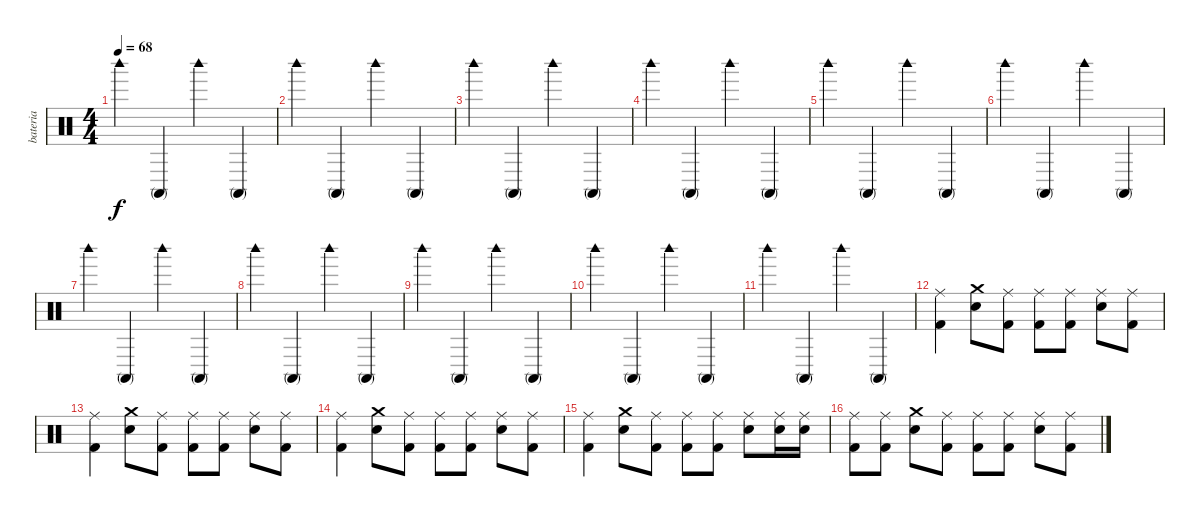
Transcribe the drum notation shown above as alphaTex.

\track ("bateria" "bateria") {instrument percussion}
\staff {score}
\articulation defaults
\ts (4 4)
\tempo 68
\clef neutral
\ks c "Woodblock high (hit)".4{dy f} "Conga high (mute)".4 "Woodblock high (hit)".4 "Conga high (mute)".4
|
"Woodblock high (hit)".4 "Conga high (mute)".4 "Woodblock high (hit)".4 "Conga high (mute)".4 |
"Woodblock high (hit)".4 "Conga high (mute)".4 "Woodblock high (hit)".4 "Conga high (mute)".4 |
"Woodblock high (hit)".4 "Conga high (mute)".4 "Woodblock high (hit)".4 "Conga high (mute)".4 |
"Woodblock high (hit)".4 "Conga high (mute)".4 "Woodblock high (hit)".4 "Conga high (mute)".4 |
"Woodblock high (hit)".4 "Conga high (mute)".4 "Woodblock high (hit)".4 "Conga high (mute)".4 |
"Woodblock high (hit)".4 "Conga high (mute)".4 "Woodblock high (hit)".4 "Conga high (mute)".4 |
"Woodblock high (hit)".4 "Conga high (mute)".4 "Woodblock high (hit)".4 "Conga high (mute)".4 |
"Woodblock high (hit)".4 "Conga high (mute)".4 "Woodblock high (hit)".4 "Conga high (mute)".4 |
"Woodblock high (hit)".4 "Conga high (mute)".4 "Woodblock high (hit)".4 "Conga high (mute)".4 |
"Woodblock high (hit)".4 "Conga high (mute)".4 "Woodblock high (hit)".4 "Conga high (mute)".4 |
("Ride (middle)" "Kick (hit) 2").4 ("Crash medium (hit)" "Snare (hit) 2").8 ("Ride (middle)" "Kick (hit) 2").8 ("Ride (middle)" "Kick (hit) 2").8 ("Ride (middle)" "Kick (hit) 2").8 ("Ride (middle)" "Snare (hit) 2").8 ("Ride (middle)" "Kick (hit) 2").8 |
("Ride (middle)" "Kick (hit) 2").4 ("Crash medium (hit)" "Snare (hit) 2").8 ("Ride (middle)" "Kick (hit) 2").8 ("Ride (middle)" "Kick (hit) 2").8 ("Ride (middle)" "Kick (hit) 2").8 ("Ride (middle)" "Snare (hit) 2").8 ("Ride (middle)" "Kick (hit) 2").8 |
("Ride (middle)" "Kick (hit) 2").4 ("Crash medium (hit)" "Snare (hit) 2").8 ("Ride (middle)" "Kick (hit) 2").8 ("Ride (middle)" "Kick (hit) 2").8 ("Ride (middle)" "Kick (hit) 2").8 ("Ride (middle)" "Snare (hit) 2").8 ("Ride (middle)" "Kick (hit) 2").8 |
("Ride (middle)" "Kick (hit) 2").4 ("Crash medium (hit)" "Snare (hit) 2").8 ("Ride (middle)" "Kick (hit) 2").8 ("Ride (middle)" "Kick (hit) 2").8 ("Ride (middle)" "Kick (hit) 2").8 ("Ride (middle)" "Snare (hit) 2").8 ("Ride (middle)" "Snare (hit) 2").16 ("Ride (middle)" "Snare (hit) 2").16 |
("Ride (middle)" "Kick (hit) 2").8 ("Ride (middle)" "Kick (hit) 2").8 ("Crash medium (hit)" "Snare (hit) 2").8 ("Ride (middle)" "Kick (hit) 2").8 ("Ride (middle)" "Kick (hit) 2").8 ("Ride (middle)" "Kick (hit) 2").8 ("Ride (middle)" "Snare (hit) 2").8 ("Ride (middle)" "Kick (hit) 2").8
